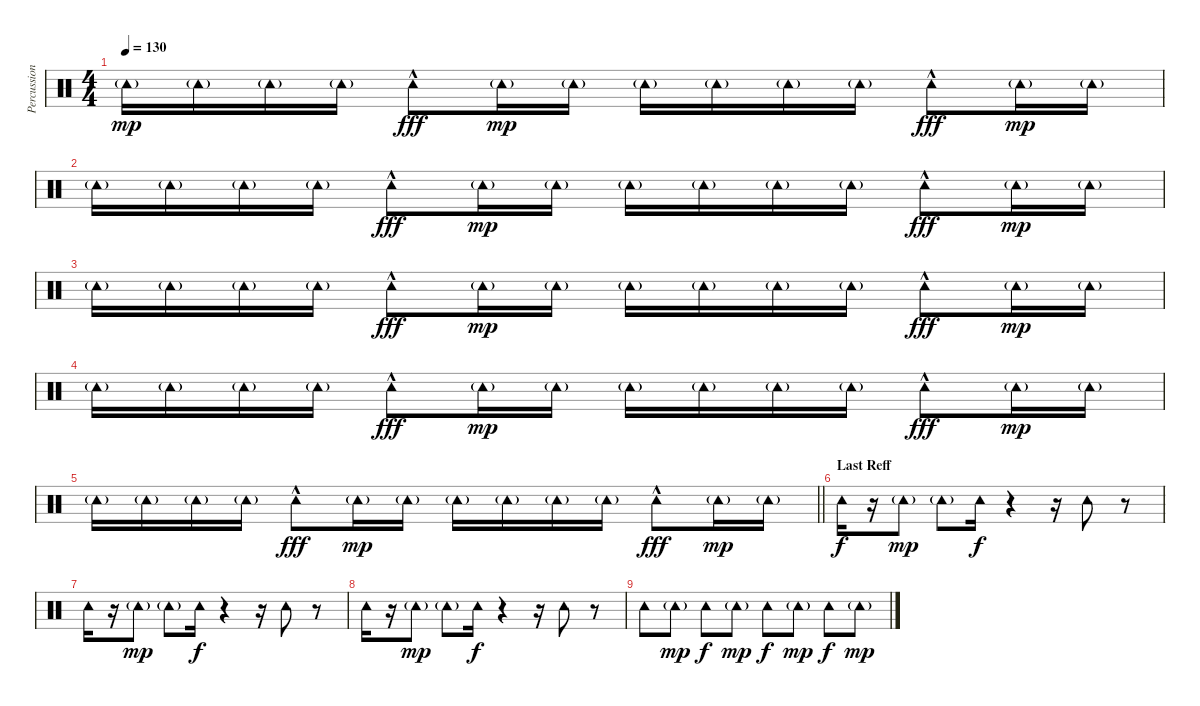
\track ("Percussion 2" "Percussion") {instrument percussion}
\staff {score}
\articulation defaults
\ts (4 4)
\tempo 130
\clef neutral
\ks c "Tambourine (hit)"{g}.16{dy mp} "Tambourine (hit)"{g}.16 "Tambourine (hit)"{g}.16 "Tambourine (hit)"{g}.16 "Tambourine (hit)"{hac}.8{dy fff} "Tambourine (hit)"{g}.16{dy mp} "Tambourine (hit)"{g}.16 "Tambourine (hit)"{g}.16 "Tambourine (hit)"{g}.16 "Tambourine (hit)"{g}.16 "Tambourine (hit)"{g}.16 "Tambourine (hit)"{hac}.8{dy fff} "Tambourine (hit)"{g}.16{dy mp} "Tambourine (hit)"{g}.16
|
"Tambourine (hit)"{g}.16 "Tambourine (hit)"{g}.16 "Tambourine (hit)"{g}.16 "Tambourine (hit)"{g}.16 "Tambourine (hit)"{hac}.8{dy fff} "Tambourine (hit)"{g}.16{dy mp} "Tambourine (hit)"{g}.16 "Tambourine (hit)"{g}.16 "Tambourine (hit)"{g}.16 "Tambourine (hit)"{g}.16 "Tambourine (hit)"{g}.16 "Tambourine (hit)"{hac}.8{dy fff} "Tambourine (hit)"{g}.16{dy mp} "Tambourine (hit)"{g}.16 |
"Tambourine (hit)"{g}.16 "Tambourine (hit)"{g}.16 "Tambourine (hit)"{g}.16 "Tambourine (hit)"{g}.16 "Tambourine (hit)"{hac}.8{dy fff} "Tambourine (hit)"{g}.16{dy mp} "Tambourine (hit)"{g}.16 "Tambourine (hit)"{g}.16 "Tambourine (hit)"{g}.16 "Tambourine (hit)"{g}.16 "Tambourine (hit)"{g}.16 "Tambourine (hit)"{hac}.8{dy fff} "Tambourine (hit)"{g}.16{dy mp} "Tambourine (hit)"{g}.16 |
"Tambourine (hit)"{g}.16 "Tambourine (hit)"{g}.16 "Tambourine (hit)"{g}.16 "Tambourine (hit)"{g}.16 "Tambourine (hit)"{hac}.8{dy fff} "Tambourine (hit)"{g}.16{dy mp} "Tambourine (hit)"{g}.16 "Tambourine (hit)"{g}.16 "Tambourine (hit)"{g}.16 "Tambourine (hit)"{g}.16 "Tambourine (hit)"{g}.16 "Tambourine (hit)"{hac}.8{dy fff} "Tambourine (hit)"{g}.16{dy mp} "Tambourine (hit)"{g}.16 |
\barLineRight lightlight "Tambourine (hit)"{g}.16 "Tambourine (hit)"{g}.16 "Tambourine (hit)"{g}.16 "Tambourine (hit)"{g}.16 "Tambourine (hit)"{hac}.8{dy fff} "Tambourine (hit)"{g}.16{dy mp} "Tambourine (hit)"{g}.16 "Tambourine (hit)"{g}.16 "Tambourine (hit)"{g}.16 "Tambourine (hit)"{g}.16 "Tambourine (hit)"{g}.16 "Tambourine (hit)"{hac}.8{dy fff} "Tambourine (hit)"{g}.16{dy mp} "Tambourine (hit)"{g}.16
|
\section ("" "Last Reff")
"Tambourine (hit)".16{dy f} r.16 "Tambourine (hit)"{g}.8{dy mp} "Tambourine (hit)"{g}.8 "Tambourine (hit)".16{dy f} r.4 r.16 "Tambourine (hit)".8 r.8 |
"Tambourine (hit)".16 r.16 "Tambourine (hit)"{g}.8{dy mp} "Tambourine (hit)"{g}.8 "Tambourine (hit)".16{dy f} r.4 r.16 "Tambourine (hit)".8 r.8 |
"Tambourine (hit)".16 r.16 "Tambourine (hit)"{g}.8{dy mp} "Tambourine (hit)"{g}.8 "Tambourine (hit)".16{dy f} r.4 r.16 "Tambourine (hit)".8 r.8 |
"Tambourine (hit)".8 "Tambourine (hit)"{g}.8{dy mp} "Tambourine (hit)".8{dy f} "Tambourine (hit)"{g}.8{dy mp} "Tambourine (hit)".8{dy f} "Tambourine (hit)"{g}.8{dy mp} "Tambourine (hit)".8{dy f} "Tambourine (hit)"{g}.8{dy mp}
